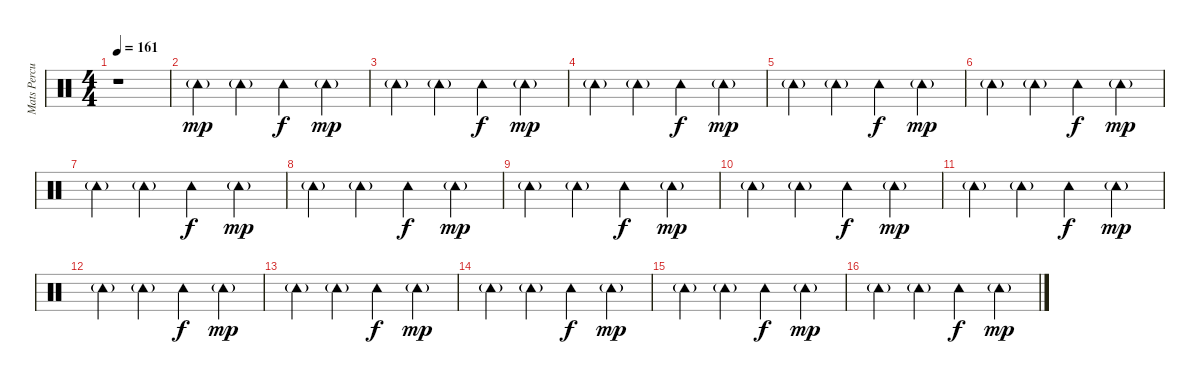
\track ("Mats Percussion" "Mats Percu") {instrument percussion}
\staff {score}
\articulation defaults
\ts (4 4)
\tempo 161
\clef neutral
\ks c
r.1{dy mp} |
"Tambourine (hit)"{g}.4 "Tambourine (hit)"{g}.4 "Tambourine (hit)".4{dy f} "Tambourine (hit)"{g}.4{dy mp} |
"Tambourine (hit)"{g}.4 "Tambourine (hit)"{g}.4 "Tambourine (hit)".4{dy f} "Tambourine (hit)"{g}.4{dy mp} |
"Tambourine (hit)"{g}.4 "Tambourine (hit)"{g}.4 "Tambourine (hit)".4{dy f} "Tambourine (hit)"{g}.4{dy mp} |
"Tambourine (hit)"{g}.4 "Tambourine (hit)"{g}.4 "Tambourine (hit)".4{dy f} "Tambourine (hit)"{g}.4{dy mp} |
"Tambourine (hit)"{g}.4 "Tambourine (hit)"{g}.4 "Tambourine (hit)".4{dy f} "Tambourine (hit)"{g}.4{dy mp} |
"Tambourine (hit)"{g}.4 "Tambourine (hit)"{g}.4 "Tambourine (hit)".4{dy f} "Tambourine (hit)"{g}.4{dy mp} |
"Tambourine (hit)"{g}.4 "Tambourine (hit)"{g}.4 "Tambourine (hit)".4{dy f} "Tambourine (hit)"{g}.4{dy mp} |
"Tambourine (hit)"{g}.4 "Tambourine (hit)"{g}.4 "Tambourine (hit)".4{dy f} "Tambourine (hit)"{g}.4{dy mp} |
"Tambourine (hit)"{g}.4 "Tambourine (hit)"{g}.4 "Tambourine (hit)".4{dy f} "Tambourine (hit)"{g}.4{dy mp} |
"Tambourine (hit)"{g}.4 "Tambourine (hit)"{g}.4 "Tambourine (hit)".4{dy f} "Tambourine (hit)"{g}.4{dy mp} |
"Tambourine (hit)"{g}.4 "Tambourine (hit)"{g}.4 "Tambourine (hit)".4{dy f} "Tambourine (hit)"{g}.4{dy mp} |
"Tambourine (hit)"{g}.4 "Tambourine (hit)"{g}.4 "Tambourine (hit)".4{dy f} "Tambourine (hit)"{g}.4{dy mp} |
"Tambourine (hit)"{g}.4 "Tambourine (hit)"{g}.4 "Tambourine (hit)".4{dy f} "Tambourine (hit)"{g}.4{dy mp} |
"Tambourine (hit)"{g}.4 "Tambourine (hit)"{g}.4 "Tambourine (hit)".4{dy f} "Tambourine (hit)"{g}.4{dy mp} |
"Tambourine (hit)"{g}.4 "Tambourine (hit)"{g}.4 "Tambourine (hit)".4{dy f} "Tambourine (hit)"{g}.4{dy mp}
